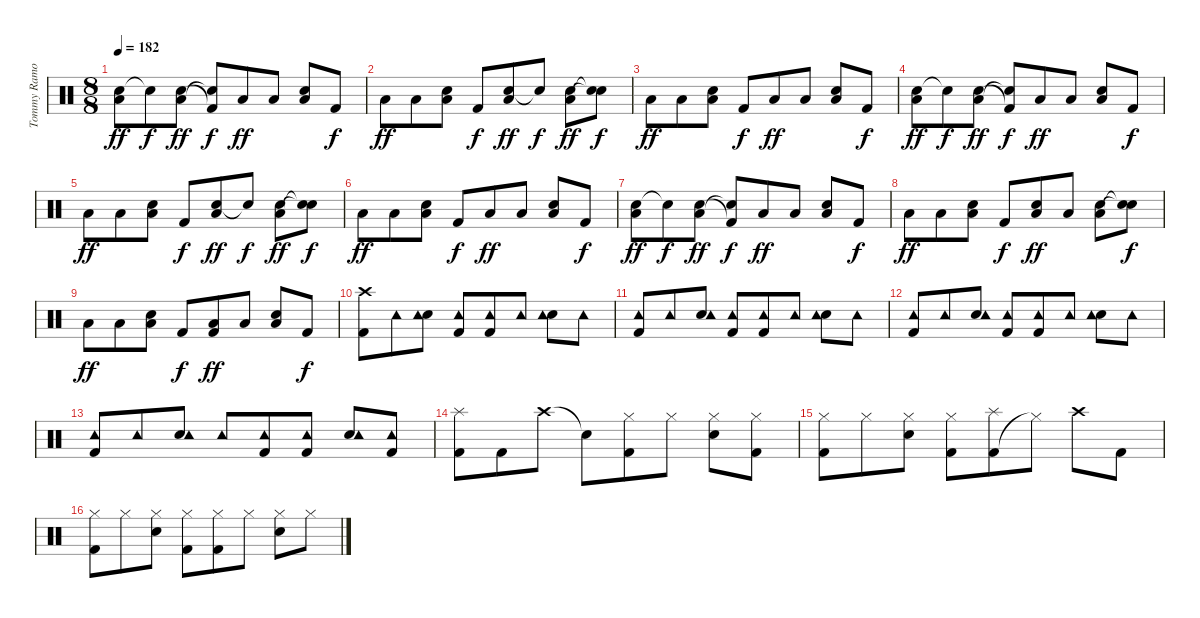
\track ("Tommy Ramone - Drums" "Tommy Ramo") {instrument percussion}
\staff {score}
\articulation defaults
\ts (8 8)
\tempo 182
\clef neutral
\ks c
("Snare (hit) 2" "Low Floor Tom (hit)").8{dy ff} "Electric Snare (hit)"{t}.8{dy f} ("Snare (hit) 2" "Low Floor Tom (hit)").8{dy ff} ("Kick (hit) 2"{t} "Electric Snare (hit)"{t}).8{dy f} "Low Floor Tom (hit)".8{dy ff} "Low Floor Tom (hit)".8 ("Snare (hit) 2" "Low Floor Tom (hit)").8 "Kick (hit) 2".8{dy f} |
"Low Floor Tom (hit)".8{dy ff} "Low Floor Tom (hit)".8 ("Snare (hit) 2" "Low Floor Tom (hit)").8 "Kick (hit) 2".8{dy f} ("Snare (hit) 2" "Low Floor Tom (hit)").8{dy ff} "Electric Snare (hit)"{t}.8{dy f} ("Snare (hit) 2" "Low Floor Tom (hit)").8{dy ff} ("Snare (hit)"{t} "Electric Snare (hit)"{t}).8{dy f} |
"Low Floor Tom (hit)".8{dy ff} "Low Floor Tom (hit)".8 ("Snare (hit) 2" "Low Floor Tom (hit)").8 "Kick (hit) 2".8{dy f} "Low Floor Tom (hit)".8{dy ff} "Low Floor Tom (hit)".8 ("Snare (hit) 2" "Low Floor Tom (hit)").8 "Kick (hit) 2".8{dy f} |
("Snare (hit) 2" "Low Floor Tom (hit)").8{dy ff} "Electric Snare (hit)"{t}.8{dy f} ("Snare (hit) 2" "Low Floor Tom (hit)").8{dy ff} ("Kick (hit) 2"{t} "Electric Snare (hit)"{t}).8{dy f} "Low Floor Tom (hit)".8{dy ff} "Low Floor Tom (hit)".8 ("Snare (hit) 2" "Low Floor Tom (hit)").8 "Kick (hit) 2".8{dy f} |
"Low Floor Tom (hit)".8{dy ff} "Low Floor Tom (hit)".8 ("Snare (hit) 2" "Low Floor Tom (hit)").8 "Kick (hit) 2".8{dy f} ("Snare (hit) 2" "Low Floor Tom (hit)").8{dy ff} "Electric Snare (hit)"{t}.8{dy f} ("Snare (hit) 2" "Low Floor Tom (hit)").8{dy ff} ("Snare (hit)"{t} "Electric Snare (hit)"{t}).8{dy f} |
"Low Floor Tom (hit)".8{dy ff} "Low Floor Tom (hit)".8 ("Snare (hit) 2" "Low Floor Tom (hit)").8 "Kick (hit) 2".8{dy f} "Low Floor Tom (hit)".8{dy ff} "Low Floor Tom (hit)".8 ("Snare (hit) 2" "Low Floor Tom (hit)").8 "Kick (hit) 2".8{dy f} |
("Snare (hit) 2" "Low Floor Tom (hit)").8{dy ff} "Electric Snare (hit)"{t}.8{dy f} ("Snare (hit) 2" "Low Floor Tom (hit)").8{dy ff} ("Kick (hit) 2"{t} "Electric Snare (hit)"{t}).8{dy f} "Low Floor Tom (hit)".8{dy ff} "Low Floor Tom (hit)".8 ("Snare (hit) 2" "Low Floor Tom (hit)").8 "Kick (hit) 2".8{dy f} |
"Low Floor Tom (hit)".8{dy ff} "Low Floor Tom (hit)".8 ("Snare (hit) 2" "Low Floor Tom (hit)").8 "Kick (hit) 2".8{dy f} ("Snare (hit) 2" "Low Floor Tom (hit)").8{dy ff} "Low Floor Tom (hit)".8 ("Snare (hit) 2" "Low Floor Tom (hit)").8 ("Snare (hit)"{t} "Electric Snare (hit)"{t}).8{dy f} |
"Low Floor Tom (hit)".8{dy ff} "Low Floor Tom (hit)".8 ("Snare (hit) 2" "Low Floor Tom (hit)").8 "Kick (hit) 2".8{dy f} ("Kick (hit) 2" "Low Floor Tom (hit)").8{dy ff} "Low Floor Tom (hit)".8 ("Snare (hit) 2" "Low Floor Tom (hit)").8 "Kick (hit) 2".8{dy f} |
("Kick (hit) 2" "Crash high (hit)").8 "Tambourine (hit)".8 ("Snare (hit) 2" "Tambourine (hit)").8 ("Kick (hit) 2" "Tambourine (hit)").8 ("Kick (hit) 2" "Tambourine (hit)").8 "Tambourine (hit)".8 ("Snare (hit) 2" "Tambourine (hit)").8 "Tambourine (hit)".8 |
("Kick (hit) 2" "Tambourine (hit)").8 "Tambourine (hit)".8 ("Snare (hit) 2" "Tambourine (hit)").8 ("Kick (hit) 2" "Tambourine (hit)").8 ("Kick (hit) 2" "Tambourine (hit)").8 "Tambourine (hit)".8 ("Snare (hit) 2" "Tambourine (hit)").8 "Tambourine (hit)".8 |
("Kick (hit) 2" "Tambourine (hit)").8 "Tambourine (hit)".8 ("Snare (hit) 2" "Tambourine (hit)").8 ("Kick (hit) 2" "Tambourine (hit)").8 ("Kick (hit) 2" "Tambourine (hit)").8 "Tambourine (hit)".8 ("Snare (hit) 2" "Tambourine (hit)").8 "Tambourine (hit)".8 |
("Kick (hit) 2" "Tambourine (hit)").8 "Tambourine (hit)".8 ("Snare (hit) 2" "Tambourine (hit)").8 "Tambourine (hit)".8 ("Kick (hit) 2" "Tambourine (hit)").8 ("Kick (hit) 2" "Tambourine (hit)").8 ("Snare (hit) 2" "Tambourine (hit)").8 ("Kick (hit) 2" "Tambourine (hit)").8 |
("Kick (hit) 2" "Splash (hit)").8 "Kick (hit) 2".8 "Crash high (hit)".8 "Electric Snare (hit)"{t}.8 ("Kick (hit) 2" "Hi-Hat (closed)").8 "Hi-Hat (closed)".8 ("Snare (hit) 2" "Hi-Hat (closed)").8 ("Kick (hit) 2" "Hi-Hat (closed)").8 |
("Kick (hit) 2" "Hi-Hat (closed)").8 "Hi-Hat (closed)".8 ("Snare (hit) 2" "Hi-Hat (closed)").8 ("Kick (hit) 2" "Hi-Hat (closed)").8 ("Kick (hit) 2" "Splash (hit)").8 "Hi-Hat (closed)"{t}.8 "Crash high (hit)".8 "Kick (hit) 2".8 |
("Kick (hit) 2" "Hi-Hat (closed)").8 "Hi-Hat (closed)".8 ("Snare (hit) 2" "Hi-Hat (closed)").8 ("Kick (hit) 2" "Hi-Hat (closed)").8 ("Kick (hit) 2" "Hi-Hat (closed)").8 "Hi-Hat (closed)".8 ("Snare (hit) 2" "Hi-Hat (closed)").8 "Hi-Hat (closed)".8
